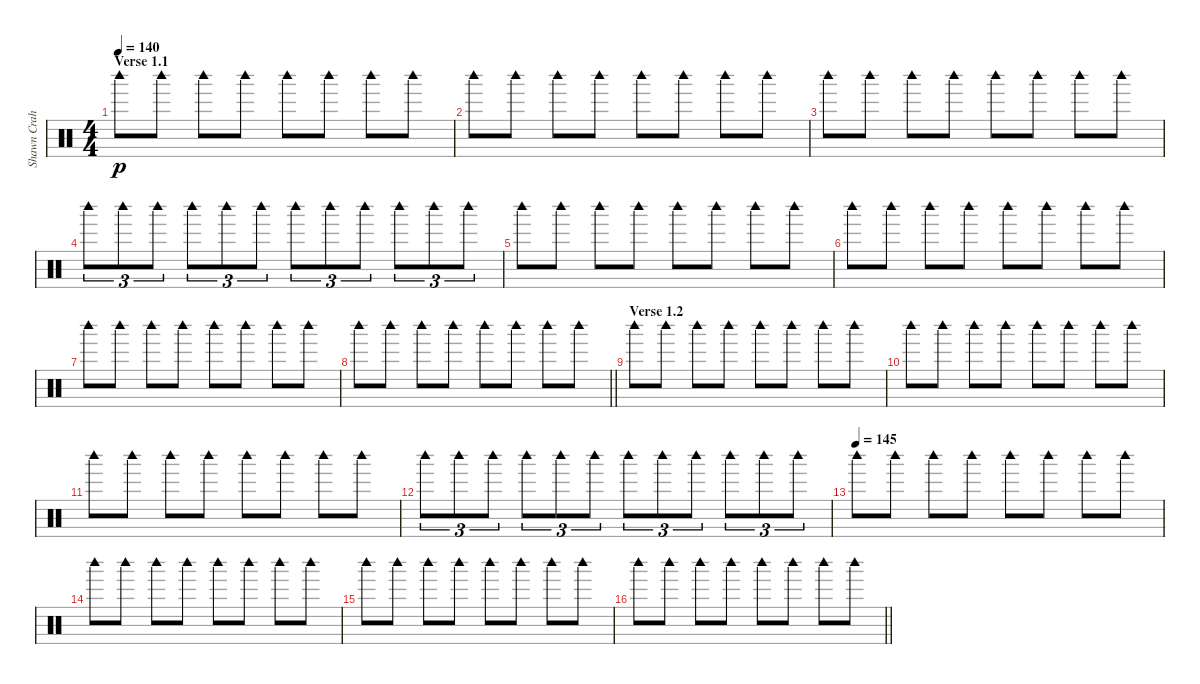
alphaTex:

\track ("Shawn Crahan" "Shawn Crah") {instrument percussion}
\staff {score}
\articulation defaults
\ts (4 4)
\section ("" "Verse 1.1")
\tempo 140
\clef neutral
\ks c "Woodblock high (hit)".8{dy p} "Woodblock high (hit)".8 "Woodblock high (hit)".8 "Woodblock high (hit)".8 "Woodblock high (hit)".8 "Woodblock high (hit)".8 "Woodblock high (hit)".8 "Woodblock high (hit)".8
|
"Woodblock high (hit)".8 "Woodblock high (hit)".8 "Woodblock high (hit)".8 "Woodblock high (hit)".8 "Woodblock high (hit)".8 "Woodblock high (hit)".8 "Woodblock high (hit)".8 "Woodblock high (hit)".8 |
"Woodblock high (hit)".8 "Woodblock high (hit)".8 "Woodblock high (hit)".8 "Woodblock high (hit)".8 "Woodblock high (hit)".8 "Woodblock high (hit)".8 "Woodblock high (hit)".8 "Woodblock high (hit)".8 |
"Woodblock high (hit)".8{tu (3 2)} "Woodblock high (hit)".8{tu (3 2)} "Woodblock high (hit)".8{tu (3 2)} "Woodblock high (hit)".8{tu (3 2)} "Woodblock high (hit)".8{tu (3 2)} "Woodblock high (hit)".8{tu (3 2)} "Woodblock high (hit)".8{tu (3 2)} "Woodblock high (hit)".8{tu (3 2)} "Woodblock high (hit)".8{tu (3 2)} "Woodblock high (hit)".8{tu (3 2)} "Woodblock high (hit)".8{tu (3 2)} "Woodblock high (hit)".8{tu (3 2)} |
"Woodblock high (hit)".8 "Woodblock high (hit)".8 "Woodblock high (hit)".8 "Woodblock high (hit)".8 "Woodblock high (hit)".8 "Woodblock high (hit)".8 "Woodblock high (hit)".8 "Woodblock high (hit)".8 |
"Woodblock high (hit)".8 "Woodblock high (hit)".8 "Woodblock high (hit)".8 "Woodblock high (hit)".8 "Woodblock high (hit)".8 "Woodblock high (hit)".8 "Woodblock high (hit)".8 "Woodblock high (hit)".8 |
"Woodblock high (hit)".8 "Woodblock high (hit)".8 "Woodblock high (hit)".8 "Woodblock high (hit)".8 "Woodblock high (hit)".8 "Woodblock high (hit)".8 "Woodblock high (hit)".8 "Woodblock high (hit)".8 |
\barLineRight lightlight "Woodblock high (hit)".8 "Woodblock high (hit)".8 "Woodblock high (hit)".8 "Woodblock high (hit)".8 "Woodblock high (hit)".8 "Woodblock high (hit)".8 "Woodblock high (hit)".8 "Woodblock high (hit)".8
|
\section ("" "Verse 1.2")
"Woodblock high (hit)".8 "Woodblock high (hit)".8 "Woodblock high (hit)".8 "Woodblock high (hit)".8 "Woodblock high (hit)".8 "Woodblock high (hit)".8 "Woodblock high (hit)".8 "Woodblock high (hit)".8 |
"Woodblock high (hit)".8 "Woodblock high (hit)".8 "Woodblock high (hit)".8 "Woodblock high (hit)".8 "Woodblock high (hit)".8 "Woodblock high (hit)".8 "Woodblock high (hit)".8 "Woodblock high (hit)".8 |
"Woodblock high (hit)".8 "Woodblock high (hit)".8 "Woodblock high (hit)".8 "Woodblock high (hit)".8 "Woodblock high (hit)".8 "Woodblock high (hit)".8 "Woodblock high (hit)".8 "Woodblock high (hit)".8 |
"Woodblock high (hit)".8{tu (3 2)} "Woodblock high (hit)".8{tu (3 2)} "Woodblock high (hit)".8{tu (3 2)} "Woodblock high (hit)".8{tu (3 2)} "Woodblock high (hit)".8{tu (3 2)} "Woodblock high (hit)".8{tu (3 2)} "Woodblock high (hit)".8{tu (3 2)} "Woodblock high (hit)".8{tu (3 2)} "Woodblock high (hit)".8{tu (3 2)} "Woodblock high (hit)".8{tu (3 2)} "Woodblock high (hit)".8{tu (3 2)} "Woodblock high (hit)".8{tu (3 2)} |
\tempo (145)
"Woodblock high (hit)".8 "Woodblock high (hit)".8 "Woodblock high (hit)".8 "Woodblock high (hit)".8 "Woodblock high (hit)".8 "Woodblock high (hit)".8 "Woodblock high (hit)".8 "Woodblock high (hit)".8 |
"Woodblock high (hit)".8 "Woodblock high (hit)".8 "Woodblock high (hit)".8 "Woodblock high (hit)".8 "Woodblock high (hit)".8 "Woodblock high (hit)".8 "Woodblock high (hit)".8 "Woodblock high (hit)".8 |
"Woodblock high (hit)".8 "Woodblock high (hit)".8 "Woodblock high (hit)".8 "Woodblock high (hit)".8 "Woodblock high (hit)".8 "Woodblock high (hit)".8 "Woodblock high (hit)".8 "Woodblock high (hit)".8 |
\barLineRight lightlight "Woodblock high (hit)".8 "Woodblock high (hit)".8 "Woodblock high (hit)".8 "Woodblock high (hit)".8 "Woodblock high (hit)".8 "Woodblock high (hit)".8 "Woodblock high (hit)".8 "Woodblock high (hit)".8
